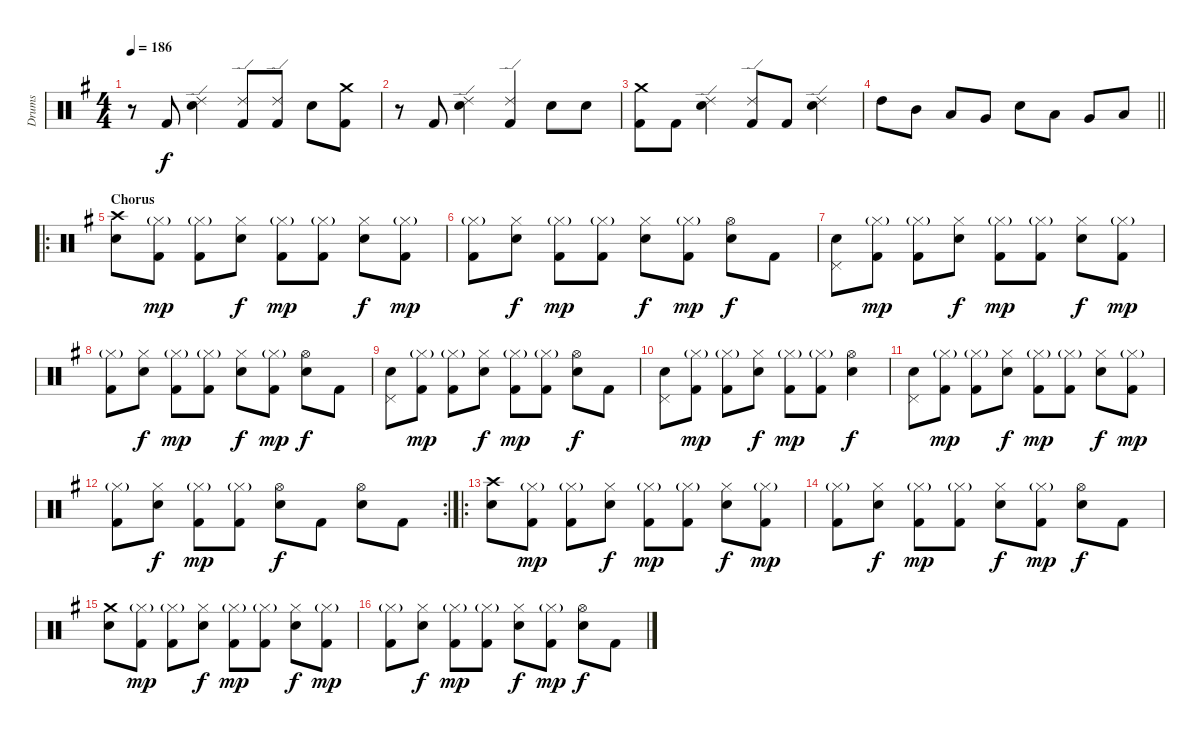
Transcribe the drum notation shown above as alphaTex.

\track ("Drums" "Drums") {instrument percussion}
\staff {score}
\articulation defaults
\ts (4 4)
\tempo 186
\clef neutral
\ks g
r.8{dy f} "Kick (hit) 2".8 ("Ride (edge) 2" "Snare (hit) 2").4 ("Ride (edge) 2" "Kick (hit) 2").8 ("Ride (edge) 2" "Kick (hit) 2").8 "Snare (hit) 2".8 ("Crash medium (hit)" "Kick (hit) 2").8 |
r.8 "Kick (hit) 2".8 ("Ride (edge) 2" "Snare (hit) 2").4 ("Ride (edge) 2" "Kick (hit) 2").4 "Snare (hit) 2".8 "Snare (hit) 2".8 |
("Crash medium (hit)" "Kick (hit) 2").8 "Kick (hit) 2".8 ("Ride (edge) 2" "Snare (hit) 2").4 ("Ride (edge) 2" "Kick (hit) 2").8 "Kick (hit) 2".8 ("Ride (edge) 2" "Snare (hit) 2").4 |
\barLineRight lightlight "High Tom (hit)".8 "Mid Tom (hit)".8 "Low Tom (hit)".8 "Very Low Tom (hit)".8 "Snare (hit) 2".8 "Low Tom (hit)".8 "Very Low Tom (hit)".8 "Low Floor Tom (hit)".8
|
\ro
\section ("" "Chorus")
("Crash high (hit)" "Snare (hit) 2").8 ("Hi-Hat (closed)"{g} "Kick (hit) 2").8{dy mp} ("Hi-Hat (closed)"{g} "Kick (hit) 2").8 ("Hi-Hat (closed)" "Snare (hit) 2").8{dy f} ("Hi-Hat (closed)"{g} "Kick (hit) 2").8{dy mp} ("Hi-Hat (closed)"{g} "Kick (hit) 2").8 ("Hi-Hat (closed)" "Snare (hit) 2").8{dy f} ("Hi-Hat (closed)"{g} "Kick (hit) 2").8{dy mp} |
("Hi-Hat (closed)"{g} "Kick (hit) 2").8 ("Hi-Hat (closed)" "Snare (hit) 2").8{dy f} ("Hi-Hat (closed)"{g} "Kick (hit) 2").8{dy mp} ("Hi-Hat (closed)"{g} "Kick (hit) 2").8 ("Hi-Hat (closed)" "Snare (hit) 2").8{dy f} ("Hi-Hat (closed)"{g} "Kick (hit) 2").8{dy mp} ("Hi-Hat (open)" "Snare (hit) 2").8{dy f} "Kick (hit) 2".8 |
("Pedal Hi-Hat (hit)" "Snare (hit) 2").8 ("Hi-Hat (closed)"{g} "Kick (hit) 2").8{dy mp} ("Hi-Hat (closed)"{g} "Kick (hit) 2").8 ("Hi-Hat (closed)" "Snare (hit) 2").8{dy f} ("Hi-Hat (closed)"{g} "Kick (hit) 2").8{dy mp} ("Hi-Hat (closed)"{g} "Kick (hit) 2").8 ("Hi-Hat (closed)" "Snare (hit) 2").8{dy f} ("Hi-Hat (closed)"{g} "Kick (hit) 2").8{dy mp} |
("Hi-Hat (closed)"{g} "Kick (hit) 2").8 ("Hi-Hat (closed)" "Snare (hit) 2").8{dy f} ("Hi-Hat (closed)"{g} "Kick (hit) 2").8{dy mp} ("Hi-Hat (closed)"{g} "Kick (hit) 2").8 ("Hi-Hat (closed)" "Snare (hit) 2").8{dy f} ("Hi-Hat (closed)"{g} "Kick (hit) 2").8{dy mp} ("Hi-Hat (open)" "Snare (hit) 2").8{dy f} "Kick (hit) 2".8 |
("Pedal Hi-Hat (hit)" "Snare (hit) 2").8 ("Hi-Hat (closed)"{g} "Kick (hit) 2").8{dy mp} ("Hi-Hat (closed)"{g} "Kick (hit) 2").8 ("Hi-Hat (closed)" "Snare (hit) 2").8{dy f} ("Hi-Hat (closed)"{g} "Kick (hit) 2").8{dy mp} ("Hi-Hat (closed)"{g} "Kick (hit) 2").8 ("Hi-Hat (open)" "Snare (hit) 2").8{dy f} "Kick (hit) 2".8 |
("Pedal Hi-Hat (hit)" "Snare (hit) 2").8 ("Hi-Hat (closed)"{g} "Kick (hit) 2").8{dy mp} ("Hi-Hat (closed)"{g} "Kick (hit) 2").8 ("Hi-Hat (closed)" "Snare (hit) 2").8{dy f} ("Hi-Hat (closed)"{g} "Kick (hit) 2").8{dy mp} ("Hi-Hat (closed)"{g} "Kick (hit) 2").8 ("Hi-Hat (open)" "Snare (hit) 2").4{dy f} |
("Pedal Hi-Hat (hit)" "Snare (hit) 2").8 ("Hi-Hat (closed)"{g} "Kick (hit) 2").8{dy mp} ("Hi-Hat (closed)"{g} "Kick (hit) 2").8 ("Hi-Hat (closed)" "Snare (hit) 2").8{dy f} ("Hi-Hat (closed)"{g} "Kick (hit) 2").8{dy mp} ("Hi-Hat (closed)"{g} "Kick (hit) 2").8 ("Hi-Hat (closed)" "Snare (hit) 2").8{dy f} ("Hi-Hat (closed)"{g} "Kick (hit) 2").8{dy mp} |
\rc 2
("Hi-Hat (closed)"{g} "Kick (hit) 2").8 ("Hi-Hat (closed)" "Snare (hit) 2").8{dy f} ("Hi-Hat (closed)"{g} "Kick (hit) 2").8{dy mp} ("Hi-Hat (closed)"{g} "Kick (hit) 2").8 ("Hi-Hat (open)" "Snare (hit) 2").8{dy f} "Kick (hit) 2".8 ("Hi-Hat (open)" "Snare (hit) 2").8 "Kick (hit) 2".8 |
\ro
("Crash high (hit)" "Snare (hit) 2").8 ("Hi-Hat (closed)"{g} "Kick (hit) 2").8{dy mp} ("Hi-Hat (closed)"{g} "Kick (hit) 2").8 ("Hi-Hat (closed)" "Snare (hit) 2").8{dy f} ("Hi-Hat (closed)"{g} "Kick (hit) 2").8{dy mp} ("Hi-Hat (closed)"{g} "Kick (hit) 2").8 ("Hi-Hat (closed)" "Snare (hit) 2").8{dy f} ("Hi-Hat (closed)"{g} "Kick (hit) 2").8{dy mp} |
("Hi-Hat (closed)"{g} "Kick (hit) 2").8 ("Hi-Hat (closed)" "Snare (hit) 2").8{dy f} ("Hi-Hat (closed)"{g} "Kick (hit) 2").8{dy mp} ("Hi-Hat (closed)"{g} "Kick (hit) 2").8 ("Hi-Hat (closed)" "Snare (hit) 2").8{dy f} ("Hi-Hat (closed)"{g} "Kick (hit) 2").8{dy mp} ("Hi-Hat (open)" "Snare (hit) 2").8{dy f} "Kick (hit) 2".8 |
("Crash medium (hit)" "Snare (hit) 2").8 ("Hi-Hat (closed)"{g} "Kick (hit) 2").8{dy mp} ("Hi-Hat (closed)"{g} "Kick (hit) 2").8 ("Hi-Hat (closed)" "Snare (hit) 2").8{dy f} ("Hi-Hat (closed)"{g} "Kick (hit) 2").8{dy mp} ("Hi-Hat (closed)"{g} "Kick (hit) 2").8 ("Hi-Hat (closed)" "Snare (hit) 2").8{dy f} ("Hi-Hat (closed)"{g} "Kick (hit) 2").8{dy mp} |
("Hi-Hat (closed)"{g} "Kick (hit) 2").8 ("Hi-Hat (closed)" "Snare (hit) 2").8{dy f} ("Hi-Hat (closed)"{g} "Kick (hit) 2").8{dy mp} ("Hi-Hat (closed)"{g} "Kick (hit) 2").8 ("Hi-Hat (closed)" "Snare (hit) 2").8{dy f} ("Hi-Hat (closed)"{g} "Kick (hit) 2").8{dy mp} ("Hi-Hat (open)" "Snare (hit) 2").8{dy f} "Kick (hit) 2".8
